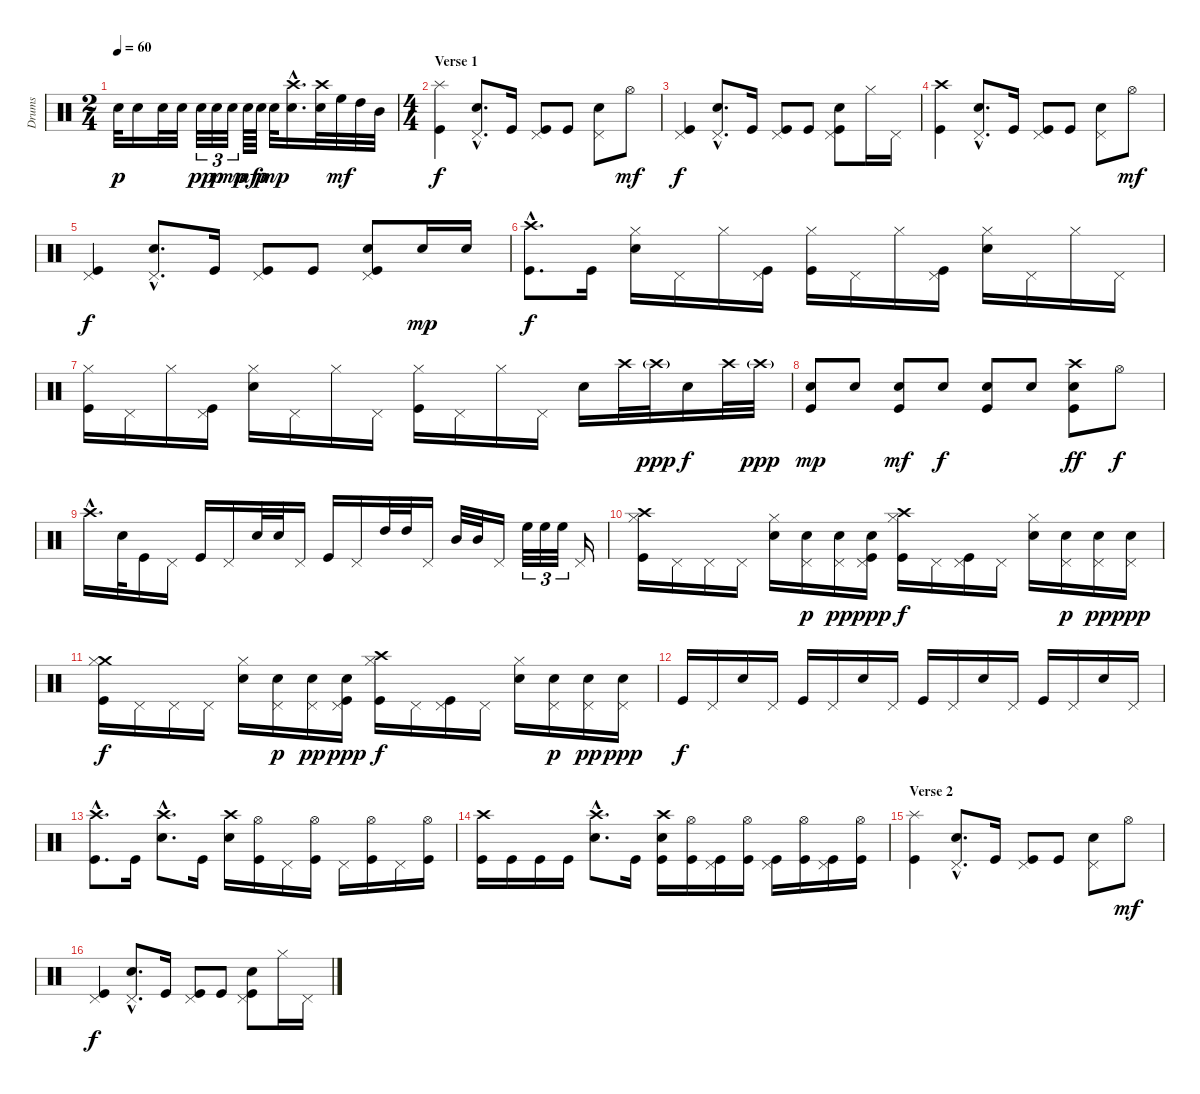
\track ("Drums" "Drums") {instrument percussion}
\staff {score}
\articulation defaults
\ts (2 4)
\tempo 60
\clef neutral
\ks c "Electric Snare (hit)".32{dy p} "Electric Snare (hit)".16 "Electric Snare (hit)".32 "Electric Snare (hit)".32 "Electric Snare (hit)".32{tu (3 2) dy pp} "Electric Snare (hit)".32{tu (3 2) dy p} "Electric Snare (hit)".32{tu (3 2) dy mp} "Electric Snare (hit)".64{dy mf} "Electric Snare (hit)".64{dy p} "Electric Snare (hit)".32{dy mp}
("Crash high (hit)"{hac} "Electric Snare (hit)"{hac}).16{d} ("Crash high (hit)" "Electric Snare (hit)").32 "High Floor Tom (hit)".32{dy mf} "High Tom (hit)".32 "Mid Tom (hit)".32 |
\ts (4 4)
\section ("" "Verse 1")
("Splash (hit)" "Kick (hit)").4{dy f} ("Pedal Hi-Hat (hit)"{hac} "Electric Snare (hit)"{hac}).8{d} "Kick (hit)".16 ("Pedal Hi-Hat (hit)" "Kick (hit)").8 "Kick (hit)".8 ("Pedal Hi-Hat (hit)" "Electric Snare (hit)").8 "Hi-Hat (open)".8{dy mf} |
("Pedal Hi-Hat (hit)" "Kick (hit)").4{dy f} ("Pedal Hi-Hat (hit)"{hac} "Electric Snare (hit)"{hac}).8{d} "Kick (hit)".16 ("Pedal Hi-Hat (hit)" "Kick (hit)").8 "Kick (hit)".8 ("Pedal Hi-Hat (hit)" "Electric Snare (hit)" "Kick (hit)").8 "Hi-Hat (closed)".16 "Pedal Hi-Hat (hit)".16 |
("Crash high (hit)" "Kick (hit)").4 ("Pedal Hi-Hat (hit)"{hac} "Electric Snare (hit)"{hac}).8{d} "Kick (hit)".16 ("Pedal Hi-Hat (hit)" "Kick (hit)").8 "Kick (hit)".8 ("Pedal Hi-Hat (hit)" "Electric Snare (hit)").8 "Hi-Hat (open)".8{dy mf} |
("Pedal Hi-Hat (hit)" "Kick (hit)").4{dy f} ("Pedal Hi-Hat (hit)"{hac} "Electric Snare (hit)"{hac}).8{d} "Kick (hit)".16 ("Pedal Hi-Hat (hit)" "Kick (hit)").8 "Kick (hit)".8 ("Pedal Hi-Hat (hit)" "Electric Snare (hit)" "Kick (hit)").8 "Electric Snare (hit)".16{dy mp} "Electric Snare (hit)".16 |
("Crash high (hit)"{hac} "Kick (hit)"{hac}).8{d dy f} "Kick (hit)".16 ("Hi-Hat (closed)" "Electric Snare (hit)").16 "Pedal Hi-Hat (hit)".16 "Hi-Hat (closed)".16 ("Pedal Hi-Hat (hit)" "Kick (hit)").16 ("Hi-Hat (closed)" "Kick (hit)").16 "Pedal Hi-Hat (hit)".16 "Hi-Hat (closed)".16 ("Pedal Hi-Hat (hit)" "Kick (hit)").16 ("Hi-Hat (closed)" "Electric Snare (hit)").16 "Pedal Hi-Hat (hit)".16 "Hi-Hat (closed)".16 "Pedal Hi-Hat (hit)".16 |
("Hi-Hat (closed)" "Kick (hit)").16 "Pedal Hi-Hat (hit)".16 "Hi-Hat (closed)".16 ("Pedal Hi-Hat (hit)" "Kick (hit)").16 ("Hi-Hat (closed)" "Electric Snare (hit)").16 "Pedal Hi-Hat (hit)".16 "Hi-Hat (closed)".16 "Pedal Hi-Hat (hit)".16 ("Hi-Hat (closed)" "Kick (hit)").16 "Pedal Hi-Hat (hit)".16 "Hi-Hat (closed)".16 "Pedal Hi-Hat (hit)".16 "Electric Snare (hit)".16 "Crash high (hit)".32 "Crash high (hit)"{g}.32{dy ppp} "Electric Snare (hit)".16{dy f} "Crash high (hit)".32 "Crash high (hit)"{g}.32{dy ppp} |
("Electric Snare (hit)" "Kick (hit)").8{dy mp} "Electric Snare (hit)".8 ("Electric Snare (hit)" "Kick (hit)").8{dy mf} "Electric Snare (hit)".8{dy f} ("Electric Snare (hit)" "Kick (hit)").8 "Electric Snare (hit)".8 ("Crash high (hit)" "Electric Snare (hit)" "Kick (hit)").8{dy ff} "Hi-Hat (open)".8{dy f} |
"Crash high (hit)"{hac}.16{d} "Electric Snare (hit)".32 "Kick (hit)".16 "Pedal Hi-Hat (hit)".16 "Kick (hit)".16 "Pedal Hi-Hat (hit)".16 "Electric Snare (hit)".32 "Electric Snare (hit)".32 "Pedal Hi-Hat (hit)".16 "Kick (hit)".16 "Pedal Hi-Hat (hit)".16 "High Tom (hit)".32 "High Tom (hit)".32 "Pedal Hi-Hat (hit)".16 "Mid Tom (hit)".32 "Mid Tom (hit)".32 "Pedal Hi-Hat (hit)".16 "High Floor Tom (hit)".32{tu (3 2)} "High Floor Tom (hit)".32{tu (3 2)} "High Floor Tom (hit)".32{tu (3 2)} "Pedal Hi-Hat (hit)".16 |
("Crash high (hit)" "Hi-Hat (closed)" "Kick (hit)").16 "Pedal Hi-Hat (hit)".16 "Pedal Hi-Hat (hit)".16 "Pedal Hi-Hat (hit)".16 ("Hi-Hat (closed)" "Electric Snare (hit)").16 ("Pedal Hi-Hat (hit)" "Electric Snare (hit)").16{dy p} ("Pedal Hi-Hat (hit)" "Electric Snare (hit)").16{dy pp} ("Pedal Hi-Hat (hit)" "Electric Snare (hit)" "Kick (hit)").16{dy ppp} ("Crash high (hit)" "Hi-Hat (closed)" "Kick (hit)").16{dy f} "Pedal Hi-Hat (hit)".16 ("Pedal Hi-Hat (hit)" "Kick (hit)").16 "Pedal Hi-Hat (hit)".16 ("Hi-Hat (closed)" "Electric Snare (hit)").16 ("Pedal Hi-Hat (hit)" "Electric Snare (hit)").16{dy p} ("Pedal Hi-Hat (hit)" "Electric Snare (hit)").16{dy pp} ("Pedal Hi-Hat (hit)" "Electric Snare (hit)").16{dy ppp} |
("Crash medium (hit)" "Hi-Hat (closed)" "Kick (hit)").16{dy f} "Pedal Hi-Hat (hit)".16 "Pedal Hi-Hat (hit)".16 "Pedal Hi-Hat (hit)".16 ("Hi-Hat (closed)" "Electric Snare (hit)").16 ("Pedal Hi-Hat (hit)" "Electric Snare (hit)").16{dy p} ("Pedal Hi-Hat (hit)" "Electric Snare (hit)").16{dy pp} ("Pedal Hi-Hat (hit)" "Electric Snare (hit)" "Kick (hit)").16{dy ppp} ("Crash high (hit)" "Hi-Hat (closed)" "Kick (hit)").16{dy f} "Pedal Hi-Hat (hit)".16 ("Pedal Hi-Hat (hit)" "Kick (hit)").16 "Pedal Hi-Hat (hit)".16 ("Hi-Hat (closed)" "Electric Snare (hit)").16 ("Pedal Hi-Hat (hit)" "Electric Snare (hit)").16{dy p} ("Pedal Hi-Hat (hit)" "Electric Snare (hit)").16{dy pp} ("Pedal Hi-Hat (hit)" "Electric Snare (hit)").16{dy ppp} |
"Kick (hit)".16{dy f} "Pedal Hi-Hat (hit)".16 "Electric Snare (hit)".16 "Pedal Hi-Hat (hit)".16 "Kick (hit)".16 "Pedal Hi-Hat (hit)".16 "Electric Snare (hit)".16 "Pedal Hi-Hat (hit)".16 "Kick (hit)".16 "Pedal Hi-Hat (hit)".16 "Electric Snare (hit)".16 "Pedal Hi-Hat (hit)".16 "Kick (hit)".16 "Pedal Hi-Hat (hit)".16 "Electric Snare (hit)".16 "Pedal Hi-Hat (hit)".16 |
("Crash high (hit)"{hac} "Kick (hit)"{hac}).8{d} "Kick (hit)".16 ("Crash high (hit)"{hac} "Electric Snare (hit)"{hac}).8{d} "Kick (hit)".16 ("Crash high (hit)" "Electric Snare (hit)").16 ("Hi-Hat (open)" "Kick (hit)").16 "Pedal Hi-Hat (hit)".16 ("Hi-Hat (open)" "Kick (hit)").16 "Pedal Hi-Hat (hit)".16 ("Hi-Hat (open)" "Kick (hit)").16 "Pedal Hi-Hat (hit)".16 ("Hi-Hat (open)" "Kick (hit)").16 |
("Crash high (hit)" "Kick (hit)").16 "Kick (hit)".16 "Kick (hit)".16 "Kick (hit)".16 ("Crash high (hit)"{hac} "Electric Snare (hit)"{hac}).8{d} "Kick (hit)".16 ("Crash high (hit)" "Electric Snare (hit)" "Kick (hit)").16 ("Hi-Hat (open)" "Kick (hit)").16 ("Pedal Hi-Hat (hit)" "Kick (hit)").16 ("Hi-Hat (open)" "Kick (hit)").16 ("Pedal Hi-Hat (hit)" "Kick (hit)").16 ("Hi-Hat (open)" "Kick (hit)").16 ("Pedal Hi-Hat (hit)" "Kick (hit)").16 ("Hi-Hat (open)" "Kick (hit)").16 |
\section ("" "Verse 2")
("Splash (hit)" "Kick (hit)").4 ("Pedal Hi-Hat (hit)"{hac} "Electric Snare (hit)"{hac}).8{d} "Kick (hit)".16 ("Pedal Hi-Hat (hit)" "Kick (hit)").8 "Kick (hit)".8 ("Pedal Hi-Hat (hit)" "Electric Snare (hit)").8 "Hi-Hat (open)".8{dy mf} |
("Pedal Hi-Hat (hit)" "Kick (hit)").4{dy f} ("Pedal Hi-Hat (hit)"{hac} "Electric Snare (hit)"{hac}).8{d} "Kick (hit)".16 ("Pedal Hi-Hat (hit)" "Kick (hit)").8 "Kick (hit)".8 ("Pedal Hi-Hat (hit)" "Electric Snare (hit)" "Kick (hit)").8 "Hi-Hat (closed)".16 "Pedal Hi-Hat (hit)".16
